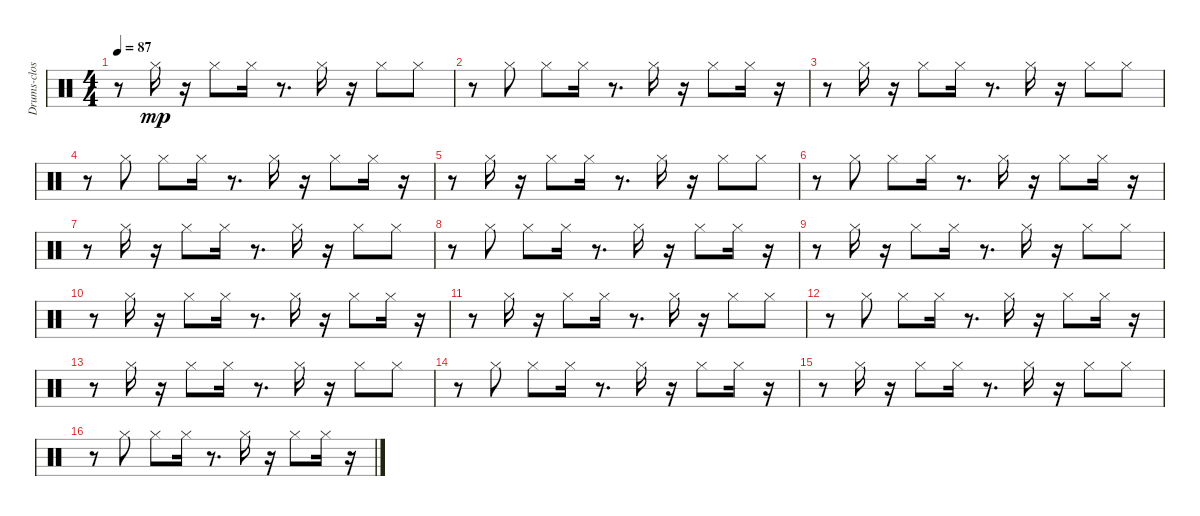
\track ("Drums-closed hi-hat" "Drums-clos") {instrument percussion}
\staff {score}
\articulation defaults
\ts (4 4)
\tempo 87
\clef neutral
\ks c
r.8{dy mp} "Hi-Hat (closed)".16 r.16 "Hi-Hat (closed)".8 "Hi-Hat (closed)".16 r.8{d} "Hi-Hat (closed)".16 r.16 "Hi-Hat (closed)".8 "Hi-Hat (closed)".8 |
r.8 "Hi-Hat (closed)".8 "Hi-Hat (closed)".8 "Hi-Hat (closed)".16 r.8{d} "Hi-Hat (closed)".16 r.16 "Hi-Hat (closed)".8 "Hi-Hat (closed)".16 r.16 |
r.8 "Hi-Hat (closed)".16 r.16 "Hi-Hat (closed)".8 "Hi-Hat (closed)".16 r.8{d} "Hi-Hat (closed)".16 r.16 "Hi-Hat (closed)".8 "Hi-Hat (closed)".8 |
r.8 "Hi-Hat (closed)".8 "Hi-Hat (closed)".8 "Hi-Hat (closed)".16 r.8{d} "Hi-Hat (closed)".16 r.16 "Hi-Hat (closed)".8 "Hi-Hat (closed)".16 r.16 |
r.8 "Hi-Hat (closed)".16 r.16 "Hi-Hat (closed)".8 "Hi-Hat (closed)".16 r.8{d} "Hi-Hat (closed)".16 r.16 "Hi-Hat (closed)".8 "Hi-Hat (closed)".8 |
r.8 "Hi-Hat (closed)".8 "Hi-Hat (closed)".8 "Hi-Hat (closed)".16 r.8{d} "Hi-Hat (closed)".16 r.16 "Hi-Hat (closed)".8 "Hi-Hat (closed)".16 r.16 |
r.8 "Hi-Hat (closed)".16 r.16 "Hi-Hat (closed)".8 "Hi-Hat (closed)".16 r.8{d} "Hi-Hat (closed)".16 r.16 "Hi-Hat (closed)".8 "Hi-Hat (closed)".8 |
r.8 "Hi-Hat (closed)".8 "Hi-Hat (closed)".8 "Hi-Hat (closed)".16 r.8{d} "Hi-Hat (closed)".16 r.16 "Hi-Hat (closed)".8 "Hi-Hat (closed)".16 r.16 |
r.8 "Hi-Hat (closed)".16 r.16 "Hi-Hat (closed)".8 "Hi-Hat (closed)".16 r.8{d} "Hi-Hat (closed)".16 r.16 "Hi-Hat (closed)".8 "Hi-Hat (closed)".8 |
r.8 "Hi-Hat (closed)".16 r.16 "Hi-Hat (closed)".8 "Hi-Hat (closed)".16 r.8{d} "Hi-Hat (closed)".16 r.16 "Hi-Hat (closed)".8 "Hi-Hat (closed)".16 r.16 |
r.8 "Hi-Hat (closed)".16 r.16 "Hi-Hat (closed)".8 "Hi-Hat (closed)".16 r.8{d} "Hi-Hat (closed)".16 r.16 "Hi-Hat (closed)".8 "Hi-Hat (closed)".8 |
r.8 "Hi-Hat (closed)".8 "Hi-Hat (closed)".8 "Hi-Hat (closed)".16 r.8{d} "Hi-Hat (closed)".16 r.16 "Hi-Hat (closed)".8 "Hi-Hat (closed)".16 r.16 |
r.8 "Hi-Hat (closed)".16 r.16 "Hi-Hat (closed)".8 "Hi-Hat (closed)".16 r.8{d} "Hi-Hat (closed)".16 r.16 "Hi-Hat (closed)".8 "Hi-Hat (closed)".8 |
r.8 "Hi-Hat (closed)".8 "Hi-Hat (closed)".8 "Hi-Hat (closed)".16 r.8{d} "Hi-Hat (closed)".16 r.16 "Hi-Hat (closed)".8 "Hi-Hat (closed)".16 r.16 |
r.8 "Hi-Hat (closed)".16 r.16 "Hi-Hat (closed)".8 "Hi-Hat (closed)".16 r.8{d} "Hi-Hat (closed)".16 r.16 "Hi-Hat (closed)".8 "Hi-Hat (closed)".8 |
r.8 "Hi-Hat (closed)".8 "Hi-Hat (closed)".8 "Hi-Hat (closed)".16 r.8{d} "Hi-Hat (closed)".16 r.16 "Hi-Hat (closed)".8 "Hi-Hat (closed)".16 r.16
